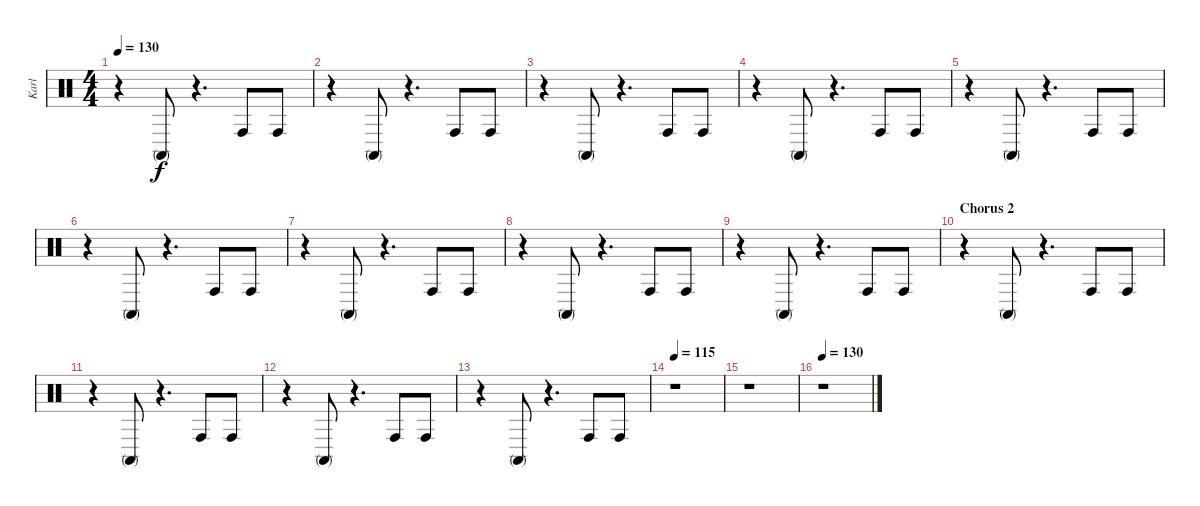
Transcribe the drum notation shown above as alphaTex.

\track ("Karl" "Karl") {instrument percussion}
\staff {score}
\articulation defaults
\ts (4 4)
\tempo 130
\clef neutral
\ks c
r.4{dy f} "Conga high (mute)".8 r.4{d} "Conga high (hit)".8 "Conga high (hit)".8 |
r.4 "Conga high (mute)".8 r.4{d} "Conga high (hit)".8 "Conga high (hit)".8 |
r.4 "Conga high (mute)".8 r.4{d} "Conga high (hit)".8 "Conga high (hit)".8 |
r.4 "Conga high (mute)".8 r.4{d} "Conga high (hit)".8 "Conga high (hit)".8 |
r.4 "Conga high (mute)".8 r.4{d} "Conga high (hit)".8 "Conga high (hit)".8 |
r.4 "Conga high (mute)".8 r.4{d} "Conga high (hit)".8 "Conga high (hit)".8 |
r.4 "Conga high (mute)".8 r.4{d} "Conga high (hit)".8 "Conga high (hit)".8 |
r.4 "Conga high (mute)".8 r.4{d} "Conga high (hit)".8 "Conga high (hit)".8 |
r.4 "Conga high (mute)".8 r.4{d} "Conga high (hit)".8 "Conga high (hit)".8 |
\section ("" "Chorus 2")
r.4 "Conga high (mute)".8 r.4{d} "Conga high (hit)".8 "Conga high (hit)".8 |
r.4 "Conga high (mute)".8 r.4{d} "Conga high (hit)".8 "Conga high (hit)".8 |
r.4 "Conga high (mute)".8 r.4{d} "Conga high (hit)".8 "Conga high (hit)".8 |
r.4 "Conga high (mute)".8 r.4{d} "Conga high (hit)".8 "Conga high (hit)".8 |
\tempo 115
r.1 |
r.1 |
\tempo 130
r.1
